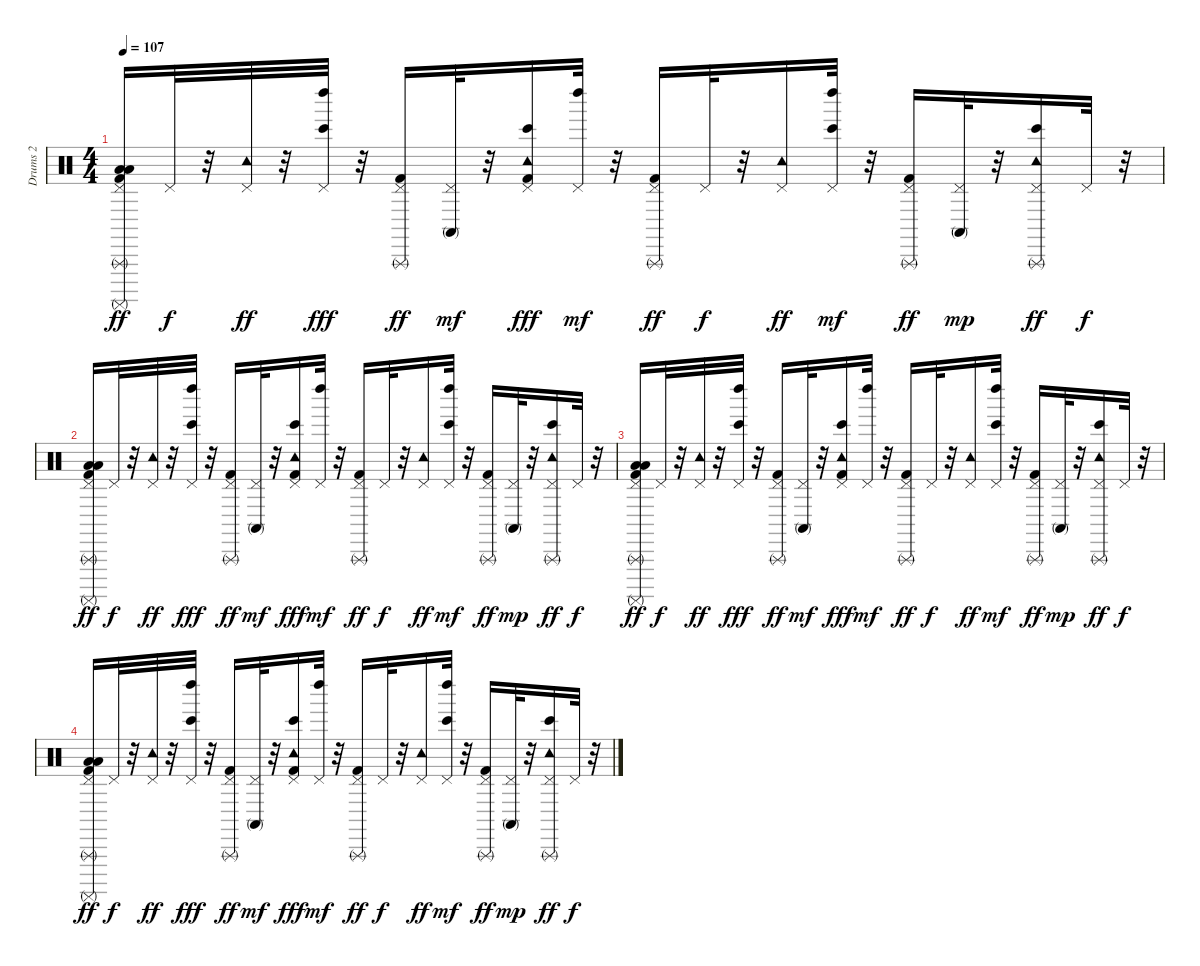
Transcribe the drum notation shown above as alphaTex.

\track ("Drums 2" "Drums 2") {instrument percussion}
\staff {score}
\articulation defaults
\ts (4 4)
\tempo 107
\clef neutral
\ks c
("Kick (hit) 2" "Pedal Hi-Hat (hit)" "Low Tom (hit)" "Low Floor Tom (hit)" "Surdo (mute)" "Triangle (rnute)").16{dy ff} "Pedal Hi-Hat (hit)".32{dy f} r.32 ("Tambourine (hit)" "Pedal Hi-Hat (hit)").32{dy ff} r.32 ("Pedal Hi-Hat (hit)" "Bongo High (hit)" "Left Maraca (hit)").32{dy fff} r.32 ("Kick (hit) 2" "Pedal Hi-Hat (hit)" "Triangle (rnute)").16{dy ff} ("Pedal Hi-Hat (hit)" "Conga high (mute)").32{dy mf} r.32 ("Kick (hit) 2" "Tambourine (hit)" "Pedal Hi-Hat (hit)" "Bongo High (hit)").16{dy fff} ("Pedal Hi-Hat (hit)" "Left Maraca (hit)").32{dy mf} r.32 ("Kick (hit) 2" "Pedal Hi-Hat (hit)" "Triangle (rnute)").16{dy ff} "Pedal Hi-Hat (hit)".32{dy f} r.32 ("Tambourine (hit)" "Pedal Hi-Hat (hit)").16{dy ff} ("Pedal Hi-Hat (hit)" "Bongo High (hit)" "Left Maraca (hit)").32{dy mf} r.32 ("Kick (hit) 2" "Pedal Hi-Hat (hit)" "Triangle (rnute)").16{dy ff} ("Pedal Hi-Hat (hit)" "Conga high (mute)").32{dy mp} r.32 ("Tambourine (hit)" "Pedal Hi-Hat (hit)" "Bongo High (hit)" "Triangle (rnute)").16{dy ff} "Pedal Hi-Hat (hit)".32{dy f} r.32 |
("Kick (hit) 2" "Pedal Hi-Hat (hit)" "Low Tom (hit)" "Low Floor Tom (hit)" "Surdo (mute)" "Triangle (rnute)").16{dy ff} "Pedal Hi-Hat (hit)".32{dy f} r.32 ("Tambourine (hit)" "Pedal Hi-Hat (hit)").32{dy ff} r.32 ("Pedal Hi-Hat (hit)" "Bongo High (hit)" "Left Maraca (hit)").32{dy fff} r.32 ("Kick (hit) 2" "Pedal Hi-Hat (hit)" "Triangle (rnute)").16{dy ff} ("Pedal Hi-Hat (hit)" "Conga high (mute)").32{dy mf} r.32 ("Kick (hit) 2" "Tambourine (hit)" "Pedal Hi-Hat (hit)" "Bongo High (hit)").16{dy fff} ("Pedal Hi-Hat (hit)" "Left Maraca (hit)").32{dy mf} r.32 ("Kick (hit) 2" "Pedal Hi-Hat (hit)" "Triangle (rnute)").16{dy ff} "Pedal Hi-Hat (hit)".32{dy f} r.32 ("Tambourine (hit)" "Pedal Hi-Hat (hit)").16{dy ff} ("Pedal Hi-Hat (hit)" "Bongo High (hit)" "Left Maraca (hit)").32{dy mf} r.32 ("Kick (hit) 2" "Pedal Hi-Hat (hit)" "Triangle (rnute)").16{dy ff} ("Pedal Hi-Hat (hit)" "Conga high (mute)").32{dy mp} r.32 ("Tambourine (hit)" "Pedal Hi-Hat (hit)" "Bongo High (hit)" "Triangle (rnute)").16{dy ff} "Pedal Hi-Hat (hit)".32{dy f} r.32 |
("Kick (hit) 2" "Pedal Hi-Hat (hit)" "Low Tom (hit)" "Low Floor Tom (hit)" "Surdo (mute)" "Triangle (rnute)").16{dy ff} "Pedal Hi-Hat (hit)".32{dy f} r.32 ("Tambourine (hit)" "Pedal Hi-Hat (hit)").32{dy ff} r.32 ("Pedal Hi-Hat (hit)" "Bongo High (hit)" "Left Maraca (hit)").32{dy fff} r.32 ("Kick (hit) 2" "Pedal Hi-Hat (hit)" "Triangle (rnute)").16{dy ff} ("Pedal Hi-Hat (hit)" "Conga high (mute)").32{dy mf} r.32 ("Kick (hit) 2" "Tambourine (hit)" "Pedal Hi-Hat (hit)" "Bongo High (hit)").16{dy fff} ("Pedal Hi-Hat (hit)" "Left Maraca (hit)").32{dy mf} r.32 ("Kick (hit) 2" "Pedal Hi-Hat (hit)" "Triangle (rnute)").16{dy ff} "Pedal Hi-Hat (hit)".32{dy f} r.32 ("Tambourine (hit)" "Pedal Hi-Hat (hit)").16{dy ff} ("Pedal Hi-Hat (hit)" "Bongo High (hit)" "Left Maraca (hit)").32{dy mf} r.32 ("Kick (hit) 2" "Pedal Hi-Hat (hit)" "Triangle (rnute)").16{dy ff} ("Pedal Hi-Hat (hit)" "Conga high (mute)").32{dy mp} r.32 ("Tambourine (hit)" "Pedal Hi-Hat (hit)" "Bongo High (hit)" "Triangle (rnute)").16{dy ff} "Pedal Hi-Hat (hit)".32{dy f} r.32 |
("Kick (hit) 2" "Pedal Hi-Hat (hit)" "Low Tom (hit)" "Low Floor Tom (hit)" "Surdo (mute)" "Triangle (rnute)").16{dy ff} "Pedal Hi-Hat (hit)".32{dy f} r.32 ("Tambourine (hit)" "Pedal Hi-Hat (hit)").32{dy ff} r.32 ("Pedal Hi-Hat (hit)" "Bongo High (hit)" "Left Maraca (hit)").32{dy fff} r.32 ("Kick (hit) 2" "Pedal Hi-Hat (hit)" "Triangle (rnute)").16{dy ff} ("Pedal Hi-Hat (hit)" "Conga high (mute)").32{dy mf} r.32 ("Kick (hit) 2" "Tambourine (hit)" "Pedal Hi-Hat (hit)" "Bongo High (hit)").16{dy fff} ("Pedal Hi-Hat (hit)" "Left Maraca (hit)").32{dy mf} r.32 ("Kick (hit) 2" "Pedal Hi-Hat (hit)" "Triangle (rnute)").16{dy ff} "Pedal Hi-Hat (hit)".32{dy f} r.32 ("Tambourine (hit)" "Pedal Hi-Hat (hit)").16{dy ff} ("Pedal Hi-Hat (hit)" "Bongo High (hit)" "Left Maraca (hit)").32{dy mf} r.32 ("Kick (hit) 2" "Pedal Hi-Hat (hit)" "Triangle (rnute)").16{dy ff} ("Pedal Hi-Hat (hit)" "Conga high (mute)").32{dy mp} r.32 ("Tambourine (hit)" "Pedal Hi-Hat (hit)" "Bongo High (hit)" "Triangle (rnute)").16{dy ff} "Pedal Hi-Hat (hit)".32{dy f} r.32
